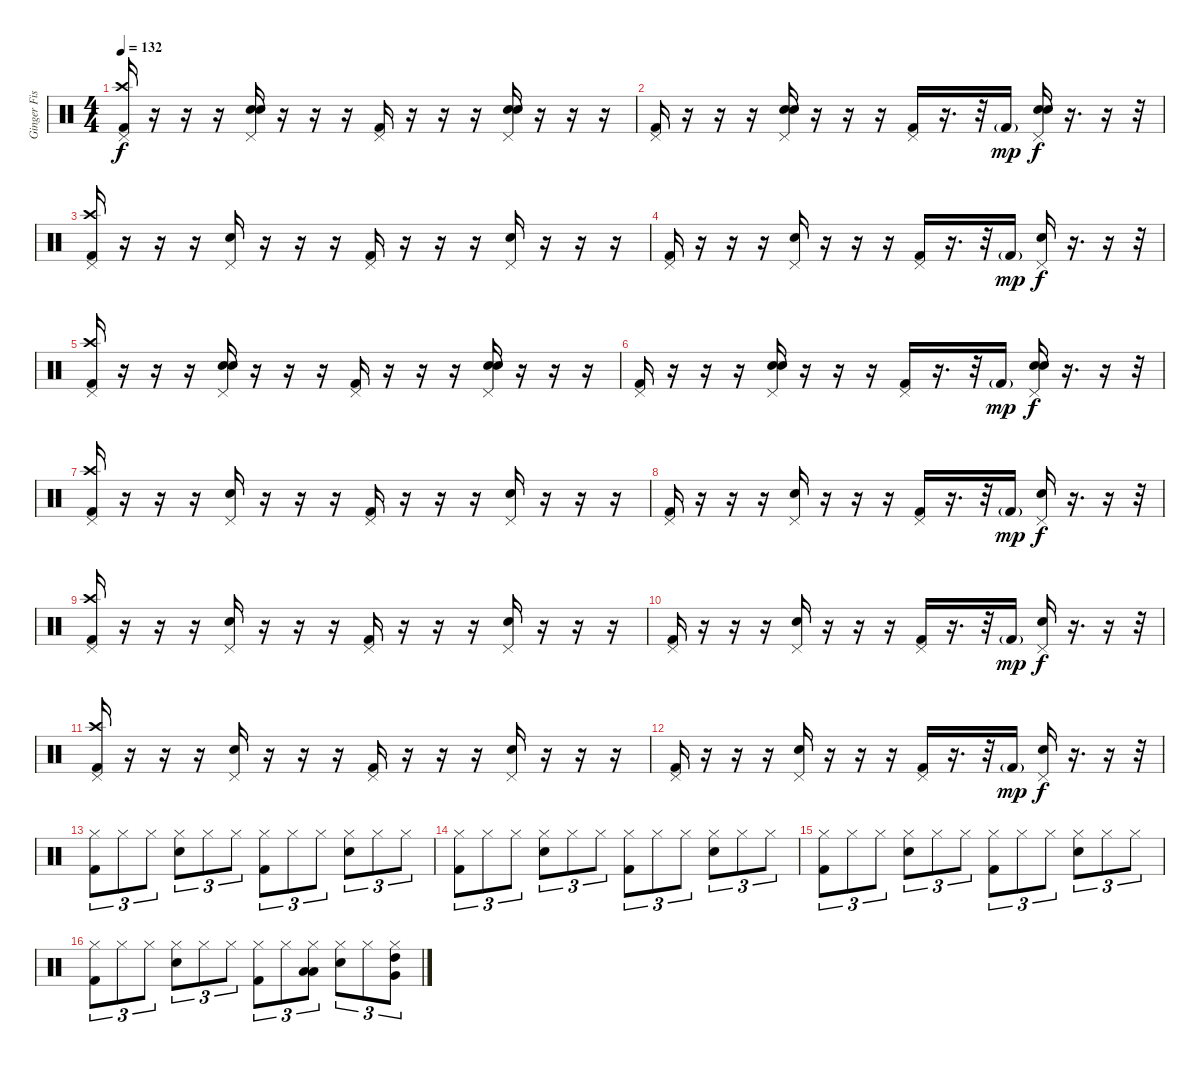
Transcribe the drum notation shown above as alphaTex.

\track ("Ginger Fish" "Ginger Fis") {instrument percussion}
\staff {score}
\articulation defaults
\ts (4 4)
\tempo 132
\clef neutral
\ks c
("Pedal Hi-Hat (hit)" "Crash high (hit)" "Kick (hit) 2").16{dy f} r.16 r.16 r.16 ("Pedal Hi-Hat (hit)" "Snare (hit) 2" "Hand Clap (hit)").16 r.16 r.16 r.16 ("Pedal Hi-Hat (hit)" "Kick (hit) 2").16 r.16 r.16 r.16 ("Pedal Hi-Hat (hit)" "Snare (hit) 2" "Hand Clap (hit)").16 r.16 r.16 r.16 |
("Pedal Hi-Hat (hit)" "Kick (hit) 2").16 r.16 r.16 r.16 ("Pedal Hi-Hat (hit)" "Snare (hit) 2" "Hand Clap (hit)").16 r.16 r.16 r.16 ("Pedal Hi-Hat (hit)" "Kick (hit) 2").16 r.16{d} r.32 "Kick (hit) 2"{g}.16{dy mp} ("Pedal Hi-Hat (hit)" "Snare (hit) 2" "Hand Clap (hit)").16{dy f} r.16{d} r.16 r.32 |
("Pedal Hi-Hat (hit)" "Crash high (hit)" "Kick (hit) 2").16 r.16 r.16 r.16 ("Pedal Hi-Hat (hit)" "Electric Snare (hit)").16 r.16 r.16 r.16 ("Pedal Hi-Hat (hit)" "Kick (hit) 2").16 r.16 r.16 r.16 ("Pedal Hi-Hat (hit)" "Electric Snare (hit)").16 r.16 r.16 r.16 |
("Pedal Hi-Hat (hit)" "Kick (hit) 2").16 r.16 r.16 r.16 ("Pedal Hi-Hat (hit)" "Electric Snare (hit)").16 r.16 r.16 r.16 ("Pedal Hi-Hat (hit)" "Kick (hit) 2").16 r.16{d} r.32 "Kick (hit) 2"{g}.16{dy mp} ("Pedal Hi-Hat (hit)" "Electric Snare (hit)").16{dy f} r.16{d} r.16 r.32 |
("Pedal Hi-Hat (hit)" "Crash high (hit)" "Kick (hit) 2").16 r.16 r.16 r.16 ("Pedal Hi-Hat (hit)" "Snare (hit) 2" "Hand Clap (hit)").16 r.16 r.16 r.16 ("Pedal Hi-Hat (hit)" "Kick (hit) 2").16 r.16 r.16 r.16 ("Pedal Hi-Hat (hit)" "Snare (hit) 2" "Hand Clap (hit)").16 r.16 r.16 r.16 |
("Pedal Hi-Hat (hit)" "Kick (hit) 2").16 r.16 r.16 r.16 ("Pedal Hi-Hat (hit)" "Snare (hit) 2" "Hand Clap (hit)").16 r.16 r.16 r.16 ("Pedal Hi-Hat (hit)" "Kick (hit) 2").16 r.16{d} r.32 "Kick (hit) 2"{g}.16{dy mp} ("Pedal Hi-Hat (hit)" "Snare (hit) 2" "Hand Clap (hit)").16{dy f} r.16{d} r.16 r.32 |
("Pedal Hi-Hat (hit)" "Crash high (hit)" "Kick (hit) 2").16 r.16 r.16 r.16 ("Pedal Hi-Hat (hit)" "Electric Snare (hit)").16 r.16 r.16 r.16 ("Pedal Hi-Hat (hit)" "Kick (hit) 2").16 r.16 r.16 r.16 ("Pedal Hi-Hat (hit)" "Electric Snare (hit)").16 r.16 r.16 r.16 |
("Pedal Hi-Hat (hit)" "Kick (hit) 2").16 r.16 r.16 r.16 ("Pedal Hi-Hat (hit)" "Electric Snare (hit)").16 r.16 r.16 r.16 ("Pedal Hi-Hat (hit)" "Kick (hit) 2").16 r.16{d} r.32 "Kick (hit) 2"{g}.16{dy mp} ("Pedal Hi-Hat (hit)" "Electric Snare (hit)").16{dy f} r.16{d} r.16 r.32 |
("Pedal Hi-Hat (hit)" "Crash high (hit)" "Kick (hit) 2").16 r.16 r.16 r.16 ("Pedal Hi-Hat (hit)" "Electric Snare (hit)").16 r.16 r.16 r.16 ("Pedal Hi-Hat (hit)" "Kick (hit) 2").16 r.16 r.16 r.16 ("Pedal Hi-Hat (hit)" "Electric Snare (hit)").16 r.16 r.16 r.16 |
("Pedal Hi-Hat (hit)" "Kick (hit) 2").16 r.16 r.16 r.16 ("Pedal Hi-Hat (hit)" "Electric Snare (hit)").16 r.16 r.16 r.16 ("Pedal Hi-Hat (hit)" "Kick (hit) 2").16 r.16{d} r.32 "Kick (hit) 2"{g}.16{dy mp} ("Pedal Hi-Hat (hit)" "Electric Snare (hit)").16{dy f} r.16{d} r.16 r.32 |
("Pedal Hi-Hat (hit)" "Crash high (hit)" "Kick (hit) 2").16 r.16 r.16 r.16 ("Pedal Hi-Hat (hit)" "Electric Snare (hit)").16 r.16 r.16 r.16 ("Pedal Hi-Hat (hit)" "Kick (hit) 2").16 r.16 r.16 r.16 ("Pedal Hi-Hat (hit)" "Electric Snare (hit)").16 r.16 r.16 r.16 |
("Pedal Hi-Hat (hit)" "Kick (hit) 2").16 r.16 r.16 r.16 ("Pedal Hi-Hat (hit)" "Electric Snare (hit)").16 r.16 r.16 r.16 ("Pedal Hi-Hat (hit)" "Kick (hit) 2").16 r.16{d} r.32 "Kick (hit) 2"{g}.16{dy mp} ("Pedal Hi-Hat (hit)" "Electric Snare (hit)").16{dy f} r.16{d} r.16 r.32 |
("Hi-Hat (closed)" "Kick (hit) 2").8{tu (3 2)} "Hi-Hat (closed)".8{tu (3 2)} "Hi-Hat (closed)".8{tu (3 2)} ("Hi-Hat (closed)" "Snare (hit) 2").8{tu (3 2)} "Hi-Hat (closed)".8{tu (3 2)} "Hi-Hat (closed)".8{tu (3 2)} ("Hi-Hat (closed)" "Kick (hit) 2").8{tu (3 2)} "Hi-Hat (closed)".8{tu (3 2)} "Hi-Hat (closed)".8{tu (3 2)} ("Hi-Hat (closed)" "Snare (hit) 2").8{tu (3 2)} "Hi-Hat (closed)".8{tu (3 2)} "Hi-Hat (closed)".8{tu (3 2)} |
("Hi-Hat (closed)" "Kick (hit) 2").8{tu (3 2)} "Hi-Hat (closed)".8{tu (3 2)} "Hi-Hat (closed)".8{tu (3 2)} ("Hi-Hat (closed)" "Snare (hit) 2").8{tu (3 2)} "Hi-Hat (closed)".8{tu (3 2)} "Hi-Hat (closed)".8{tu (3 2)} ("Hi-Hat (closed)" "Kick (hit) 2").8{tu (3 2)} "Hi-Hat (closed)".8{tu (3 2)} "Hi-Hat (closed)".8{tu (3 2)} ("Hi-Hat (closed)" "Snare (hit) 2").8{tu (3 2)} "Hi-Hat (closed)".8{tu (3 2)} "Hi-Hat (closed)".8{tu (3 2)} |
("Hi-Hat (closed)" "Kick (hit) 2").8{tu (3 2)} "Hi-Hat (closed)".8{tu (3 2)} "Hi-Hat (closed)".8{tu (3 2)} ("Hi-Hat (closed)" "Snare (hit) 2").8{tu (3 2)} "Hi-Hat (closed)".8{tu (3 2)} "Hi-Hat (closed)".8{tu (3 2)} ("Hi-Hat (closed)" "Kick (hit) 2").8{tu (3 2)} "Hi-Hat (closed)".8{tu (3 2)} "Hi-Hat (closed)".8{tu (3 2)} ("Hi-Hat (closed)" "Snare (hit) 2").8{tu (3 2)} "Hi-Hat (closed)".8{tu (3 2)} "Hi-Hat (closed)".8{tu (3 2)} |
("Hi-Hat (closed)" "Kick (hit) 2").8{tu (3 2)} "Hi-Hat (closed)".8{tu (3 2)} "Hi-Hat (closed)".8{tu (3 2)} ("Hi-Hat (closed)" "Snare (hit) 2").8{tu (3 2)} "Hi-Hat (closed)".8{tu (3 2)} "Hi-Hat (closed)".8{tu (3 2)} ("Hi-Hat (closed)" "Kick (hit) 2").8{tu (3 2)} "Hi-Hat (closed)".8{tu (3 2)} ("Hi-Hat (closed)" "Low Floor Tom (hit)" "Low Tom (hit)").8{tu (3 2)} ("Hi-Hat (closed)" "Snare (hit) 2").8{tu (3 2)} "Hi-Hat (closed)".8{tu (3 2)} ("Hi-Hat (closed)" "Very Low Tom (hit)" "High Tom (hit)").8{tu (3 2)}
